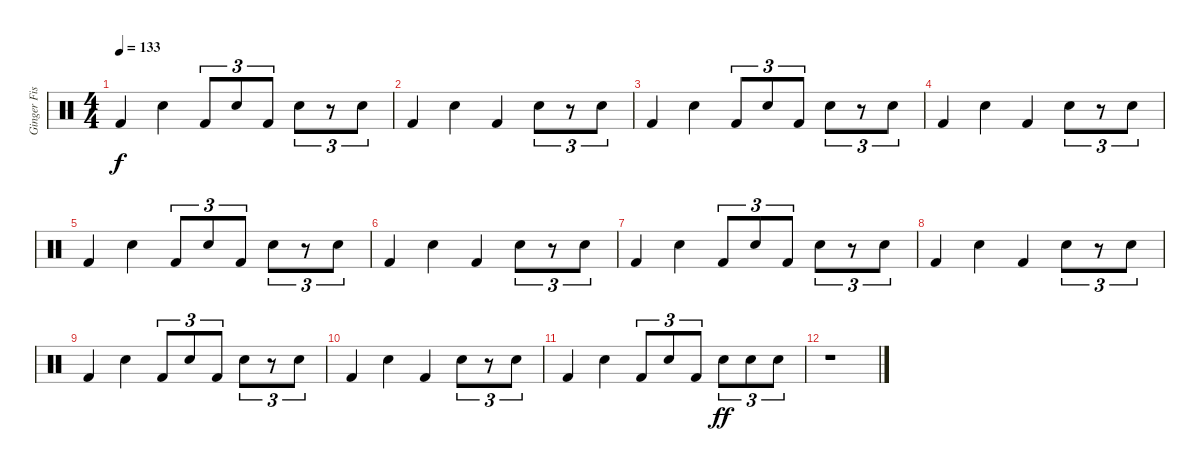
\track ("Ginger Fish (Drums)" "Ginger Fis") {instrument percussion}
\staff {score}
\articulation defaults
\ts (4 4)
\tempo 133
\clef neutral
\ks c "Kick (hit) 2".4{dy f} "Snare (hit) 2".4 "Kick (hit) 2".8{tu (3 2)} "Snare (hit) 2".8{tu (3 2)} "Kick (hit) 2".8{tu (3 2)} "Snare (hit) 2".8{tu (3 2)}
r.8{tu (3 2)} "Snare (hit) 2".8{tu (3 2)} |
"Kick (hit) 2".4 "Snare (hit) 2".4 "Kick (hit) 2".4 "Snare (hit) 2".8{tu (3 2)} r.8{tu (3 2)} "Snare (hit) 2".8{tu (3 2)} |
"Kick (hit) 2".4 "Snare (hit) 2".4 "Kick (hit) 2".8{tu (3 2)} "Snare (hit) 2".8{tu (3 2)} "Kick (hit) 2".8{tu (3 2)} "Snare (hit) 2".8{tu (3 2)} r.8{tu (3 2)} "Snare (hit) 2".8{tu (3 2)} |
"Kick (hit) 2".4 "Snare (hit) 2".4 "Kick (hit) 2".4 "Snare (hit) 2".8{tu (3 2)} r.8{tu (3 2)} "Snare (hit) 2".8{tu (3 2)} |
"Kick (hit) 2".4 "Snare (hit) 2".4 "Kick (hit) 2".8{tu (3 2)} "Snare (hit) 2".8{tu (3 2)} "Kick (hit) 2".8{tu (3 2)} "Snare (hit) 2".8{tu (3 2)} r.8{tu (3 2)} "Snare (hit) 2".8{tu (3 2)} |
"Kick (hit) 2".4 "Snare (hit) 2".4 "Kick (hit) 2".4 "Snare (hit) 2".8{tu (3 2)} r.8{tu (3 2)} "Snare (hit) 2".8{tu (3 2)} |
"Kick (hit) 2".4 "Snare (hit) 2".4 "Kick (hit) 2".8{tu (3 2)} "Snare (hit) 2".8{tu (3 2)} "Kick (hit) 2".8{tu (3 2)} "Snare (hit) 2".8{tu (3 2)} r.8{tu (3 2)} "Snare (hit) 2".8{tu (3 2)} |
"Kick (hit) 2".4 "Snare (hit) 2".4 "Kick (hit) 2".4 "Snare (hit) 2".8{tu (3 2)} r.8{tu (3 2)} "Snare (hit) 2".8{tu (3 2)} |
"Kick (hit) 2".4 "Snare (hit) 2".4 "Kick (hit) 2".8{tu (3 2)} "Snare (hit) 2".8{tu (3 2)} "Kick (hit) 2".8{tu (3 2)} "Snare (hit) 2".8{tu (3 2)} r.8{tu (3 2)} "Snare (hit) 2".8{tu (3 2)} |
"Kick (hit) 2".4 "Snare (hit) 2".4 "Kick (hit) 2".4 "Snare (hit) 2".8{tu (3 2)} r.8{tu (3 2)} "Snare (hit) 2".8{tu (3 2)} |
"Kick (hit) 2".4 "Snare (hit) 2".4 "Kick (hit) 2".8{tu (3 2)} "Snare (hit) 2".8{tu (3 2)} "Kick (hit) 2".8{tu (3 2)} "Snare (hit) 2".8{tu (3 2) dy ff} "Snare (hit) 2".8{tu (3 2)} "Snare (hit) 2".8{tu (3 2)} |
r.1
